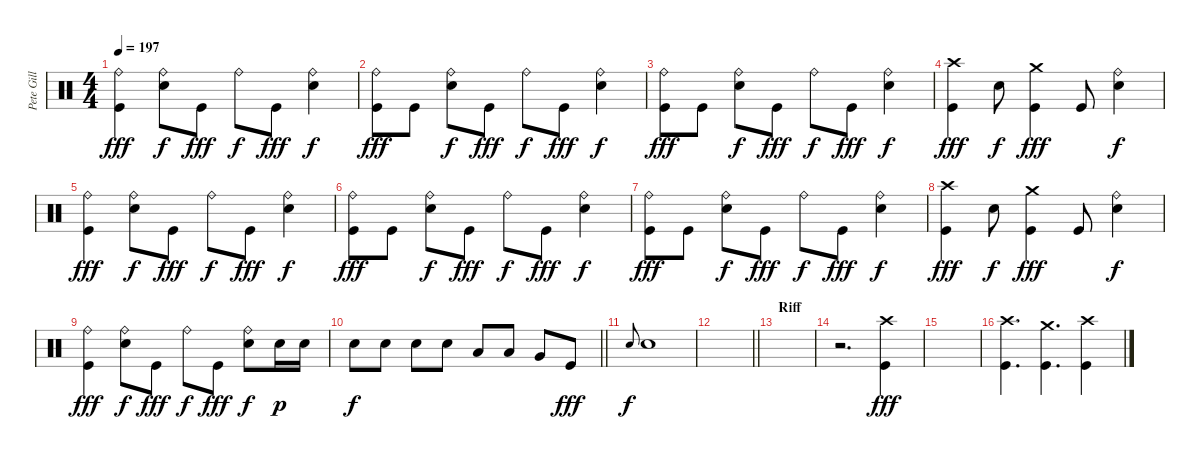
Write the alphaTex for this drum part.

\track ("Pete Gill" "Pete Gill") {instrument percussion}
\staff {score}
\articulation defaults
\ts (4 4)
\tempo 197
\clef neutral
\ks c
("Ride (bell)" "Kick (hit)").4{dy fff} ("Ride (bell)" "Electric Snare (hit)").8{dy f} "Kick (hit)".8{dy fff} "Ride (bell)".8{dy f} "Kick (hit)".8{dy fff} ("Ride (bell)" "Electric Snare (hit)").4{dy f} |
("Ride (bell)" "Kick (hit)").8{dy fff} "Kick (hit)".8 ("Ride (bell)" "Electric Snare (hit)").8{dy f} "Kick (hit)".8{dy fff} "Ride (bell)".8{dy f} "Kick (hit)".8{dy fff} ("Ride (bell)" "Electric Snare (hit)").4{dy f} |
("Ride (bell)" "Kick (hit)").8{dy fff} "Kick (hit)".8 ("Ride (bell)" "Electric Snare (hit)").8{dy f} "Kick (hit)".8{dy fff} "Ride (bell)".8{dy f} "Kick (hit)".8{dy fff} ("Ride (bell)" "Electric Snare (hit)").4{dy f} |
("Crash high (hit)" "Kick (hit)").4{dy fff} "Electric Snare (hit)".8{dy f} ("Crash medium (hit)" "Kick (hit)").4{dy fff} "Kick (hit)".8 ("Ride (bell)" "Electric Snare (hit)").4{dy f} |
("Ride (bell)" "Kick (hit)").4{dy fff} ("Ride (bell)" "Electric Snare (hit)").8{dy f} "Kick (hit)".8{dy fff} "Ride (bell)".8{dy f} "Kick (hit)".8{dy fff} ("Ride (bell)" "Electric Snare (hit)").4{dy f} |
("Ride (bell)" "Kick (hit)").8{dy fff} "Kick (hit)".8 ("Ride (bell)" "Electric Snare (hit)").8{dy f} "Kick (hit)".8{dy fff} "Ride (bell)".8{dy f} "Kick (hit)".8{dy fff} ("Ride (bell)" "Electric Snare (hit)").4{dy f} |
("Ride (bell)" "Kick (hit)").8{dy fff} "Kick (hit)".8 ("Ride (bell)" "Electric Snare (hit)").8{dy f} "Kick (hit)".8{dy fff} "Ride (bell)".8{dy f} "Kick (hit)".8{dy fff} ("Ride (bell)" "Electric Snare (hit)").4{dy f} |
("Crash high (hit)" "Kick (hit)").4{dy fff} "Electric Snare (hit)".8{dy f} ("Crash medium (hit)" "Kick (hit)").4{dy fff} "Kick (hit)".8 ("Ride (bell)" "Electric Snare (hit)").4{dy f} |
("Ride (bell)" "Kick (hit)").4{dy fff} ("Ride (bell)" "Electric Snare (hit)").8{dy f} "Kick (hit)".8{dy fff} "Ride (bell)".8{dy f} "Kick (hit)".8{dy fff} ("Ride (bell)" "Electric Snare (hit)").8{dy f} "Electric Snare (hit)".16{dy p} "Electric Snare (hit)".16 |
\barLineRight lightlight "Electric Snare (hit)".8{dy f} "Electric Snare (hit)".8 "Electric Snare (hit)".8 "Electric Snare (hit)".8 "Low Tom (hit)".8 "Low Tom (hit)".8 "Very Low Tom (hit)".8 "Kick (hit)".8{dy fff}
|
"Electric Snare (hit)".8{gr onbeat dy f} "Electric Snare (hit)".1 |
\barLineRight lightlight
|
\section ("" "Riff")
|
r.2{d} ("Crash high (hit)" "Kick (hit)").4{dy fff} |
|
("Crash high (hit)" "Kick (hit)").4{d} ("Crash medium (hit)" "Kick (hit)").4{d} ("Crash high (hit)" "Kick (hit)").4
